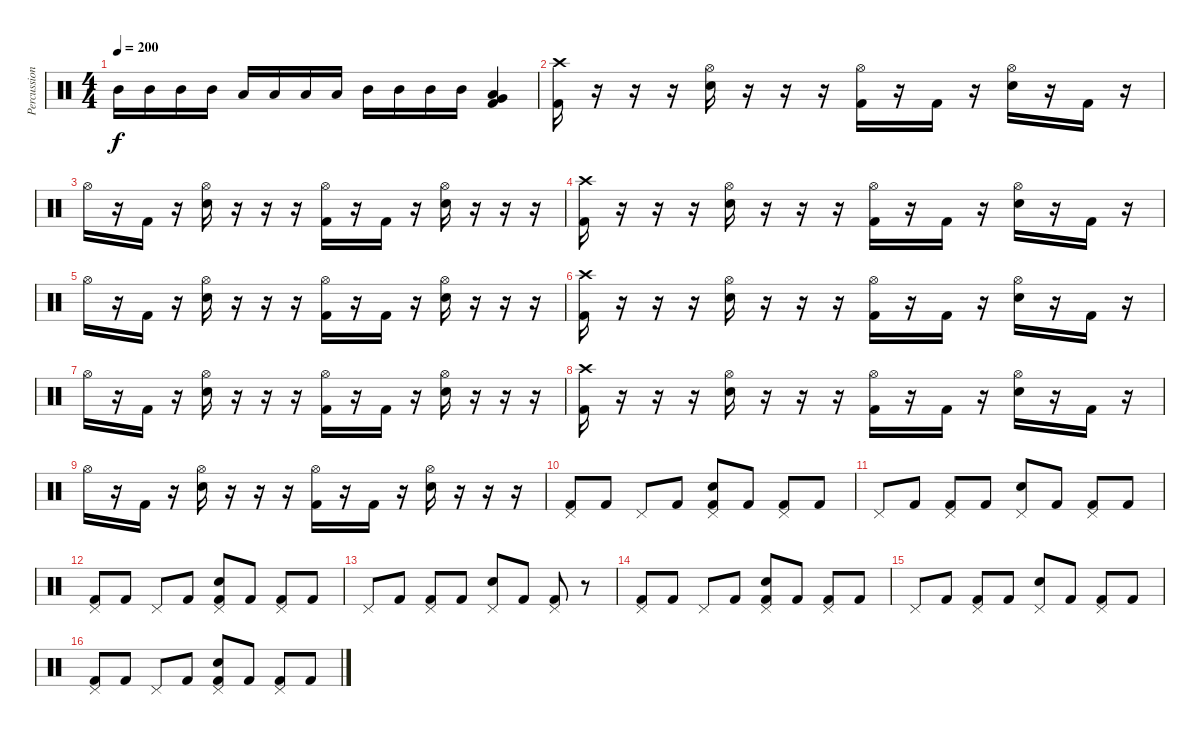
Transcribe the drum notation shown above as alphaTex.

\track ("Percussion" "Percussion") {instrument percussion}
\staff {score}
\articulation defaults
\ts (4 4)
\tempo 200
\clef neutral
\ks c "Mid Tom (hit)".16{dy f} "Mid Tom (hit)".16 "Mid Tom (hit)".16 "Mid Tom (hit)".16 "Low Tom (hit)".16 "Low Tom (hit)".16 "Low Tom (hit)".16 "Low Tom (hit)".16 "Mid Tom (hit)".16 "Mid Tom (hit)".16 "Mid Tom (hit)".16 "Mid Tom (hit)".16
("Very Low Tom (hit)" "Low Floor Tom (hit)" "Kick (hit) 2").4 |
("Crash high (hit)" "Kick (hit) 2").16 r.16 r.16 r.16 ("Hi-Hat (open)" "Snare (hit) 2").16 r.16 r.16 r.16 ("Hi-Hat (open)" "Kick (hit) 2").16 r.16 "Kick (hit) 2".16 r.16 ("Hi-Hat (open)" "Snare (hit) 2").16 r.16 "Kick (hit) 2".16 r.16 |
"Hi-Hat (open)".16 r.16 "Kick (hit) 2".16 r.16 ("Hi-Hat (open)" "Snare (hit) 2").16 r.16 r.16 r.16 ("Hi-Hat (open)" "Kick (hit) 2").16 r.16 "Kick (hit) 2".16 r.16 ("Hi-Hat (open)" "Snare (hit) 2").16 r.16 r.16 r.16 |
("Crash high (hit)" "Kick (hit) 2").16 r.16 r.16 r.16 ("Hi-Hat (open)" "Snare (hit) 2").16 r.16 r.16 r.16 ("Hi-Hat (open)" "Kick (hit) 2").16 r.16 "Kick (hit) 2".16 r.16 ("Hi-Hat (open)" "Snare (hit) 2").16 r.16 "Kick (hit) 2".16 r.16 |
"Hi-Hat (open)".16 r.16 "Kick (hit) 2".16 r.16 ("Hi-Hat (open)" "Snare (hit) 2").16 r.16 r.16 r.16 ("Hi-Hat (open)" "Kick (hit) 2").16 r.16 "Kick (hit) 2".16 r.16 ("Hi-Hat (open)" "Snare (hit) 2").16 r.16 r.16 r.16 |
("Crash high (hit)" "Kick (hit) 2").16 r.16 r.16 r.16 ("Hi-Hat (open)" "Snare (hit) 2").16 r.16 r.16 r.16 ("Hi-Hat (open)" "Kick (hit) 2").16 r.16 "Kick (hit) 2".16 r.16 ("Hi-Hat (open)" "Snare (hit) 2").16 r.16 "Kick (hit) 2".16 r.16 |
"Hi-Hat (open)".16 r.16 "Kick (hit) 2".16 r.16 ("Hi-Hat (open)" "Snare (hit) 2").16 r.16 r.16 r.16 ("Hi-Hat (open)" "Kick (hit) 2").16 r.16 "Kick (hit) 2".16 r.16 ("Hi-Hat (open)" "Snare (hit) 2").16 r.16 r.16 r.16 |
("Crash high (hit)" "Kick (hit) 2").16 r.16 r.16 r.16 ("Hi-Hat (open)" "Snare (hit) 2").16 r.16 r.16 r.16 ("Hi-Hat (open)" "Kick (hit) 2").16 r.16 "Kick (hit) 2".16 r.16 ("Hi-Hat (open)" "Snare (hit) 2").16 r.16 "Kick (hit) 2".16 r.16 |
"Hi-Hat (open)".16 r.16 "Kick (hit) 2".16 r.16 ("Hi-Hat (open)" "Snare (hit) 2").16 r.16 r.16 r.16 ("Hi-Hat (open)" "Kick (hit) 2").16 r.16 "Kick (hit) 2".16 r.16 ("Hi-Hat (open)" "Snare (hit) 2").16 r.16 r.16 r.16 |
("Pedal Hi-Hat (hit)" "Kick (hit) 2").8 "Kick (hit) 2".8 "Pedal Hi-Hat (hit)".8 "Kick (hit) 2".8 ("Pedal Hi-Hat (hit)" "Snare (hit) 2" "Kick (hit) 2").8 "Kick (hit) 2".8 ("Pedal Hi-Hat (hit)" "Kick (hit) 2").8 "Kick (hit) 2".8 |
"Pedal Hi-Hat (hit)".8 "Kick (hit) 2".8 ("Pedal Hi-Hat (hit)" "Kick (hit) 2").8 "Kick (hit) 2".8 ("Pedal Hi-Hat (hit)" "Snare (hit) 2").8 "Kick (hit) 2".8 ("Pedal Hi-Hat (hit)" "Kick (hit) 2").8 "Kick (hit) 2".8 |
("Pedal Hi-Hat (hit)" "Kick (hit) 2").8 "Kick (hit) 2".8 "Pedal Hi-Hat (hit)".8 "Kick (hit) 2".8 ("Pedal Hi-Hat (hit)" "Snare (hit) 2" "Kick (hit) 2").8 "Kick (hit) 2".8 ("Pedal Hi-Hat (hit)" "Kick (hit) 2").8 "Kick (hit) 2".8 |
"Pedal Hi-Hat (hit)".8 "Kick (hit) 2".8 ("Pedal Hi-Hat (hit)" "Kick (hit) 2").8 "Kick (hit) 2".8 ("Pedal Hi-Hat (hit)" "Snare (hit) 2").8 "Kick (hit) 2".8 ("Pedal Hi-Hat (hit)" "Kick (hit) 2").8 r.8 |
("Pedal Hi-Hat (hit)" "Kick (hit) 2").8 "Kick (hit) 2".8 "Pedal Hi-Hat (hit)".8 "Kick (hit) 2".8 ("Pedal Hi-Hat (hit)" "Snare (hit) 2" "Kick (hit) 2").8 "Kick (hit) 2".8 ("Pedal Hi-Hat (hit)" "Kick (hit) 2").8 "Kick (hit) 2".8 |
"Pedal Hi-Hat (hit)".8 "Kick (hit) 2".8 ("Pedal Hi-Hat (hit)" "Kick (hit) 2").8 "Kick (hit) 2".8 ("Pedal Hi-Hat (hit)" "Snare (hit) 2").8 "Kick (hit) 2".8 ("Pedal Hi-Hat (hit)" "Kick (hit) 2").8 "Kick (hit) 2".8 |
("Pedal Hi-Hat (hit)" "Kick (hit) 2").8 "Kick (hit) 2".8 "Pedal Hi-Hat (hit)".8 "Kick (hit) 2".8 ("Pedal Hi-Hat (hit)" "Snare (hit) 2" "Kick (hit) 2").8 "Kick (hit) 2".8 ("Pedal Hi-Hat (hit)" "Kick (hit) 2").8 "Kick (hit) 2".8
